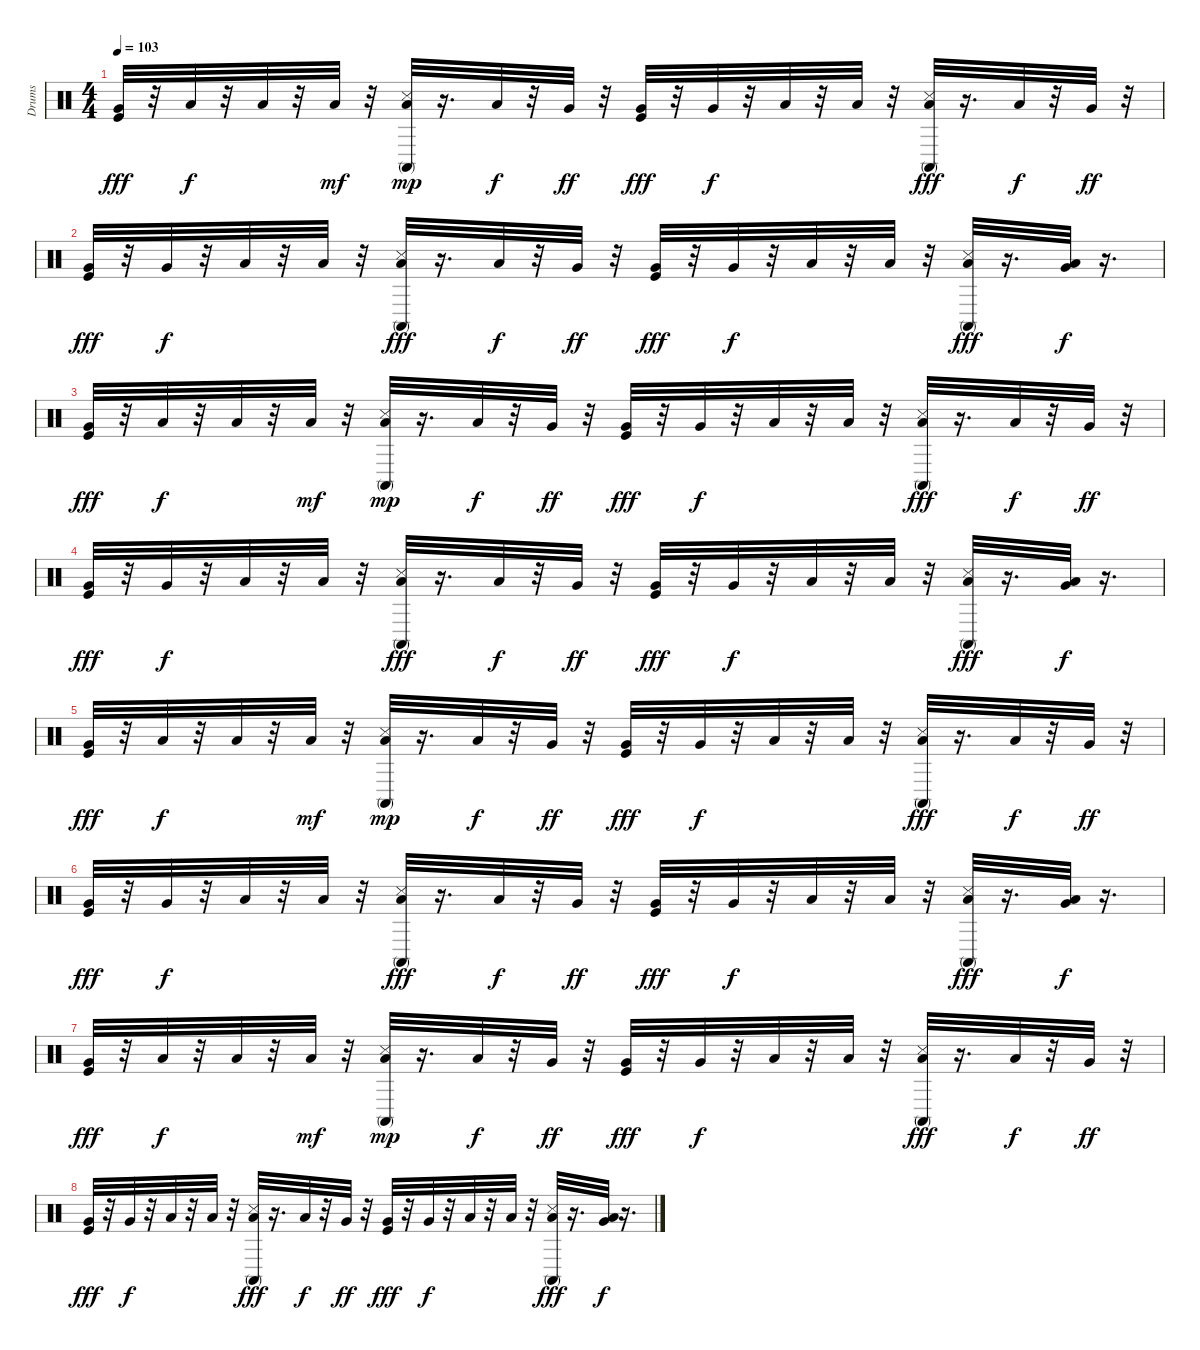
\track ("Drums" "Drums") {instrument percussion}
\staff {score}
\articulation defaults
\ts (4 4)
\tempo 103
\clef neutral
\ks c
("Very Low Tom (hit)" "Kick (hit)").32{dy fff} r.32 "Low Floor Tom (hit)".32{dy f} r.32 "Low Floor Tom (hit)".32 r.32 "Low Floor Tom (hit)".32{dy mf} r.32 ("Conga high (mute)" "Snare (side stick) 3" "Low Floor Tom (hit)").32{dy mp} r.16{d} "Low Floor Tom (hit)".32{dy f} r.32 "Very Low Tom (hit)".32{dy ff} r.32 ("Very Low Tom (hit)" "Kick (hit)").32{dy fff} r.32 "Very Low Tom (hit)".32{dy f} r.32 "Low Floor Tom (hit)".32 r.32 "Low Floor Tom (hit)".32 r.32 ("Conga high (mute)" "Low Floor Tom (hit)" "Snare (side stick) 3").32{dy fff} r.16{d} "Low Floor Tom (hit)".32{dy f} r.32 "Very Low Tom (hit)".32{dy ff} r.32 |
("Very Low Tom (hit)" "Kick (hit)").32{dy fff} r.32 "Very Low Tom (hit)".32{dy f} r.32 "Low Floor Tom (hit)".32 r.32 "Low Floor Tom (hit)".32 r.32 ("Conga high (mute)" "Low Floor Tom (hit)" "Snare (side stick) 3").32{dy fff} r.16{d} "Low Floor Tom (hit)".32{dy f} r.32 "Very Low Tom (hit)".32{dy ff} r.32 ("Very Low Tom (hit)" "Kick (hit)").32{dy fff} r.32 "Very Low Tom (hit)".32{dy f} r.32 "Low Floor Tom (hit)".32 r.32 "Low Floor Tom (hit)".32 r.32 ("Conga high (mute)" "Low Floor Tom (hit)" "Snare (side stick) 3").32{dy fff} r.16{d} ("Low Floor Tom (hit)" "Very Low Tom (hit)").32{dy f} r.16{d} |
("Very Low Tom (hit)" "Kick (hit)").32{dy fff} r.32 "Low Floor Tom (hit)".32{dy f} r.32 "Low Floor Tom (hit)".32 r.32 "Low Floor Tom (hit)".32{dy mf} r.32 ("Conga high (mute)" "Snare (side stick) 3" "Low Floor Tom (hit)").32{dy mp} r.16{d} "Low Floor Tom (hit)".32{dy f} r.32 "Very Low Tom (hit)".32{dy ff} r.32 ("Very Low Tom (hit)" "Kick (hit)").32{dy fff} r.32 "Very Low Tom (hit)".32{dy f} r.32 "Low Floor Tom (hit)".32 r.32 "Low Floor Tom (hit)".32 r.32 ("Conga high (mute)" "Low Floor Tom (hit)" "Snare (side stick) 3").32{dy fff} r.16{d} "Low Floor Tom (hit)".32{dy f} r.32 "Very Low Tom (hit)".32{dy ff} r.32 |
("Very Low Tom (hit)" "Kick (hit)").32{dy fff} r.32 "Very Low Tom (hit)".32{dy f} r.32 "Low Floor Tom (hit)".32 r.32 "Low Floor Tom (hit)".32 r.32 ("Conga high (mute)" "Low Floor Tom (hit)" "Snare (side stick) 3").32{dy fff} r.16{d} "Low Floor Tom (hit)".32{dy f} r.32 "Very Low Tom (hit)".32{dy ff} r.32 ("Very Low Tom (hit)" "Kick (hit)").32{dy fff} r.32 "Very Low Tom (hit)".32{dy f} r.32 "Low Floor Tom (hit)".32 r.32 "Low Floor Tom (hit)".32 r.32 ("Conga high (mute)" "Low Floor Tom (hit)" "Snare (side stick) 3").32{dy fff} r.16{d} ("Low Floor Tom (hit)" "Very Low Tom (hit)").32{dy f} r.16{d} |
("Very Low Tom (hit)" "Kick (hit)").32{dy fff} r.32 "Low Floor Tom (hit)".32{dy f} r.32 "Low Floor Tom (hit)".32 r.32 "Low Floor Tom (hit)".32{dy mf} r.32 ("Conga high (mute)" "Snare (side stick) 3" "Low Floor Tom (hit)").32{dy mp} r.16{d} "Low Floor Tom (hit)".32{dy f} r.32 "Very Low Tom (hit)".32{dy ff} r.32 ("Very Low Tom (hit)" "Kick (hit)").32{dy fff} r.32 "Very Low Tom (hit)".32{dy f} r.32 "Low Floor Tom (hit)".32 r.32 "Low Floor Tom (hit)".32 r.32 ("Conga high (mute)" "Low Floor Tom (hit)" "Snare (side stick) 3").32{dy fff} r.16{d} "Low Floor Tom (hit)".32{dy f} r.32 "Very Low Tom (hit)".32{dy ff} r.32 |
("Very Low Tom (hit)" "Kick (hit)").32{dy fff} r.32 "Very Low Tom (hit)".32{dy f} r.32 "Low Floor Tom (hit)".32 r.32 "Low Floor Tom (hit)".32 r.32 ("Conga high (mute)" "Low Floor Tom (hit)" "Snare (side stick) 3").32{dy fff} r.16{d} "Low Floor Tom (hit)".32{dy f} r.32 "Very Low Tom (hit)".32{dy ff} r.32 ("Very Low Tom (hit)" "Kick (hit)").32{dy fff} r.32 "Very Low Tom (hit)".32{dy f} r.32 "Low Floor Tom (hit)".32 r.32 "Low Floor Tom (hit)".32 r.32 ("Conga high (mute)" "Low Floor Tom (hit)" "Snare (side stick) 3").32{dy fff} r.16{d} ("Low Floor Tom (hit)" "Very Low Tom (hit)").32{dy f} r.16{d} |
("Very Low Tom (hit)" "Kick (hit)").32{dy fff} r.32 "Low Floor Tom (hit)".32{dy f} r.32 "Low Floor Tom (hit)".32 r.32 "Low Floor Tom (hit)".32{dy mf} r.32 ("Conga high (mute)" "Snare (side stick) 3" "Low Floor Tom (hit)").32{dy mp} r.16{d} "Low Floor Tom (hit)".32{dy f} r.32 "Very Low Tom (hit)".32{dy ff} r.32 ("Very Low Tom (hit)" "Kick (hit)").32{dy fff} r.32 "Very Low Tom (hit)".32{dy f} r.32 "Low Floor Tom (hit)".32 r.32 "Low Floor Tom (hit)".32 r.32 ("Conga high (mute)" "Low Floor Tom (hit)" "Snare (side stick) 3").32{dy fff} r.16{d} "Low Floor Tom (hit)".32{dy f} r.32 "Very Low Tom (hit)".32{dy ff} r.32 |
("Very Low Tom (hit)" "Kick (hit)").32{dy fff} r.32 "Very Low Tom (hit)".32{dy f} r.32 "Low Floor Tom (hit)".32 r.32 "Low Floor Tom (hit)".32 r.32 ("Conga high (mute)" "Low Floor Tom (hit)" "Snare (side stick) 3").32{dy fff} r.16{d} "Low Floor Tom (hit)".32{dy f} r.32 "Very Low Tom (hit)".32{dy ff} r.32 ("Very Low Tom (hit)" "Kick (hit)").32{dy fff} r.32 "Very Low Tom (hit)".32{dy f} r.32 "Low Floor Tom (hit)".32 r.32 "Low Floor Tom (hit)".32 r.32 ("Conga high (mute)" "Low Floor Tom (hit)" "Snare (side stick) 3").32{dy fff} r.16{d} ("Low Floor Tom (hit)" "Very Low Tom (hit)").32{dy f} r.16{d}
